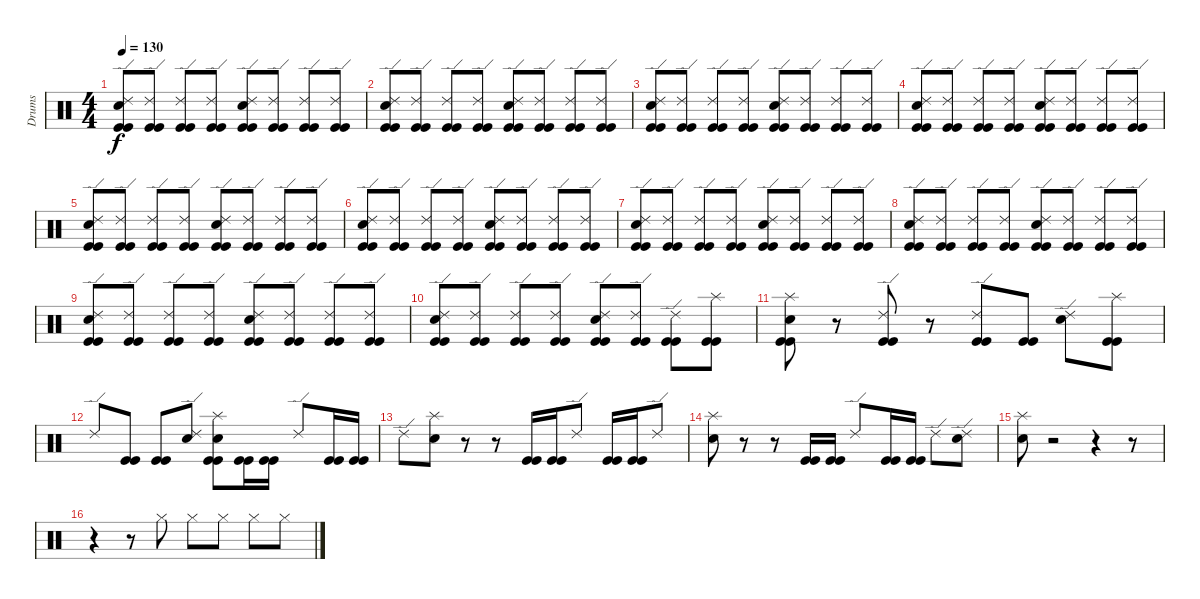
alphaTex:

\track ("Drums" "Drums") {instrument percussion}
\staff {score}
\articulation defaults
\ts (4 4)
\tempo 130
\clef neutral
\ks c
("Ride (edge) 2" "Snare (hit) 2" "Kick (hit)" "Kick (hit)").8{dy f} ("Ride (edge) 2" "Kick (hit)" "Kick (hit)").8 ("Ride (edge) 2" "Kick (hit)" "Kick (hit)").8 ("Ride (edge) 2" "Kick (hit)" "Kick (hit)").8 ("Ride (edge) 2" "Snare (hit) 2" "Kick (hit)" "Kick (hit)").8 ("Ride (edge) 2" "Kick (hit)" "Kick (hit)").8 ("Ride (edge) 2" "Kick (hit)" "Kick (hit)").8 ("Ride (edge) 2" "Kick (hit)" "Kick (hit)").8 |
("Ride (edge) 2" "Snare (hit) 2" "Kick (hit)" "Kick (hit)").8 ("Ride (edge) 2" "Kick (hit)" "Kick (hit)").8 ("Ride (edge) 2" "Kick (hit)" "Kick (hit)").8 ("Ride (edge) 2" "Kick (hit)" "Kick (hit)").8 ("Ride (edge) 2" "Snare (hit) 2" "Kick (hit)" "Kick (hit)").8 ("Ride (edge) 2" "Kick (hit)" "Kick (hit)").8 ("Ride (edge) 2" "Kick (hit)" "Kick (hit)").8 ("Ride (edge) 2" "Kick (hit)" "Kick (hit)").8 |
("Ride (edge) 2" "Snare (hit) 2" "Kick (hit)" "Kick (hit)").8 ("Ride (edge) 2" "Kick (hit)" "Kick (hit)").8 ("Ride (edge) 2" "Kick (hit)" "Kick (hit)").8 ("Ride (edge) 2" "Kick (hit)" "Kick (hit)").8 ("Ride (edge) 2" "Snare (hit) 2" "Kick (hit)" "Kick (hit)").8 ("Ride (edge) 2" "Kick (hit)" "Kick (hit)").8 ("Ride (edge) 2" "Kick (hit)" "Kick (hit)").8 ("Ride (edge) 2" "Kick (hit)" "Kick (hit)").8 |
("Ride (edge) 2" "Snare (hit) 2" "Kick (hit)" "Kick (hit)").8 ("Ride (edge) 2" "Kick (hit)" "Kick (hit)").8 ("Ride (edge) 2" "Kick (hit)" "Kick (hit)").8 ("Ride (edge) 2" "Kick (hit)" "Kick (hit)").8 ("Ride (edge) 2" "Snare (hit) 2" "Kick (hit)" "Kick (hit)").8 ("Ride (edge) 2" "Kick (hit)" "Kick (hit)").8 ("Ride (edge) 2" "Kick (hit)" "Kick (hit)").8 ("Ride (edge) 2" "Kick (hit)" "Kick (hit)").8 |
("Ride (edge) 2" "Snare (hit) 2" "Kick (hit)" "Kick (hit)").8 ("Ride (edge) 2" "Kick (hit)" "Kick (hit)").8 ("Ride (edge) 2" "Kick (hit)" "Kick (hit)").8 ("Ride (edge) 2" "Kick (hit)" "Kick (hit)").8 ("Ride (edge) 2" "Snare (hit) 2" "Kick (hit)" "Kick (hit)").8 ("Ride (edge) 2" "Kick (hit)" "Kick (hit)").8 ("Ride (edge) 2" "Kick (hit)" "Kick (hit)").8 ("Ride (edge) 2" "Kick (hit)" "Kick (hit)").8 |
("Ride (edge) 2" "Snare (hit) 2" "Kick (hit)" "Kick (hit)").8 ("Ride (edge) 2" "Kick (hit)" "Kick (hit)").8 ("Ride (edge) 2" "Kick (hit)" "Kick (hit)").8 ("Ride (edge) 2" "Kick (hit)" "Kick (hit)").8 ("Ride (edge) 2" "Snare (hit) 2" "Kick (hit)" "Kick (hit)").8 ("Ride (edge) 2" "Kick (hit)" "Kick (hit)").8 ("Ride (edge) 2" "Kick (hit)" "Kick (hit)").8 ("Ride (edge) 2" "Kick (hit)" "Kick (hit)").8 |
("Ride (edge) 2" "Snare (hit) 2" "Kick (hit)" "Kick (hit)").8 ("Ride (edge) 2" "Kick (hit)" "Kick (hit)").8 ("Ride (edge) 2" "Kick (hit)" "Kick (hit)").8 ("Ride (edge) 2" "Kick (hit)" "Kick (hit)").8 ("Ride (edge) 2" "Snare (hit) 2" "Kick (hit)" "Kick (hit)").8 ("Ride (edge) 2" "Kick (hit)" "Kick (hit)").8 ("Ride (edge) 2" "Kick (hit)" "Kick (hit)").8 ("Ride (edge) 2" "Kick (hit)" "Kick (hit)").8 |
("Ride (edge) 2" "Snare (hit) 2" "Kick (hit)" "Kick (hit)").8 ("Ride (edge) 2" "Kick (hit)" "Kick (hit)").8 ("Ride (edge) 2" "Kick (hit)" "Kick (hit)").8 ("Ride (edge) 2" "Kick (hit)" "Kick (hit)").8 ("Ride (edge) 2" "Snare (hit) 2" "Kick (hit)" "Kick (hit)").8 ("Ride (edge) 2" "Kick (hit)" "Kick (hit)").8 ("Ride (edge) 2" "Kick (hit)" "Kick (hit)").8 ("Ride (edge) 2" "Kick (hit)" "Kick (hit)").8 |
("Ride (edge) 2" "Snare (hit) 2" "Kick (hit)" "Kick (hit)").8 ("Ride (edge) 2" "Kick (hit)" "Kick (hit)").8 ("Ride (edge) 2" "Kick (hit)" "Kick (hit)").8 ("Ride (edge) 2" "Kick (hit)" "Kick (hit)").8 ("Ride (edge) 2" "Snare (hit) 2" "Kick (hit)" "Kick (hit)").8 ("Ride (edge) 2" "Kick (hit)" "Kick (hit)").8 ("Ride (edge) 2" "Kick (hit)" "Kick (hit)").8 ("Ride (edge) 2" "Kick (hit)" "Kick (hit)").8 |
("Ride (edge) 2" "Snare (hit) 2" "Kick (hit)" "Kick (hit)").8 ("Ride (edge) 2" "Kick (hit)" "Kick (hit)").8 ("Ride (edge) 2" "Kick (hit)" "Kick (hit)").8 ("Ride (edge) 2" "Kick (hit)" "Kick (hit)").8 ("Ride (edge) 2" "Snare (hit) 2" "Kick (hit)" "Kick (hit)").8 ("Ride (edge) 2" "Kick (hit)" "Kick (hit)").8 ("Ride (edge) 2" "Kick (hit)" "Kick (hit)").8 ("Splash (hit)" "Kick (hit)" "Kick (hit)").8 |
("Splash (hit)" "Snare (hit) 2" "Kick (hit)" "Kick (hit)").8 r.8 ("Ride (edge) 2" "Kick (hit)" "Kick (hit)").8 r.8 ("Ride (edge) 2" "Kick (hit)" "Kick (hit)").8 ("Kick (hit)" "Kick (hit)").8 ("Ride (edge) 2" "Snare (hit) 2").8 ("Splash (hit)" "Kick (hit)" "Kick (hit)").8 |
"Ride (edge) 2".8 ("Kick (hit)" "Kick (hit)").8 ("Kick (hit)" "Kick (hit)").8 ("Ride (edge) 2" "Snare (hit) 2").8 ("Splash (hit)" "Snare (hit) 2" "Kick (hit)" "Kick (hit)").8 ("Kick (hit)" "Kick (hit)").16 ("Kick (hit)" "Kick (hit)").16 "Ride (edge) 2".8 ("Kick (hit)" "Kick (hit)").16 ("Kick (hit)" "Kick (hit)").16 |
"Ride (edge) 2".8 ("Splash (hit)" "Snare (hit) 2").8 r.8 r.8 ("Kick (hit)" "Kick (hit)").16 ("Kick (hit)" "Kick (hit)").16 "Ride (edge) 2".8 ("Kick (hit)" "Kick (hit)").16 ("Kick (hit)" "Kick (hit)").16 "Ride (edge) 2".8 |
("Splash (hit)" "Snare (hit) 2").8 r.8 r.8 ("Kick (hit)" "Kick (hit)").16 ("Kick (hit)" "Kick (hit)").16 "Ride (edge) 2".8 ("Kick (hit)" "Kick (hit)").16 ("Kick (hit)" "Kick (hit)").16 "Ride (edge) 2".8 ("Ride (edge) 2" "Snare (hit) 2").8 |
("Splash (hit)" "Snare (hit) 2").8 r.2 r.4 r.8 |
r.4 r.8 "Hi-Hat (closed)".8 "Hi-Hat (closed)".8 "Hi-Hat (closed)".8 "Hi-Hat (closed)".8 "Hi-Hat (closed)".8
